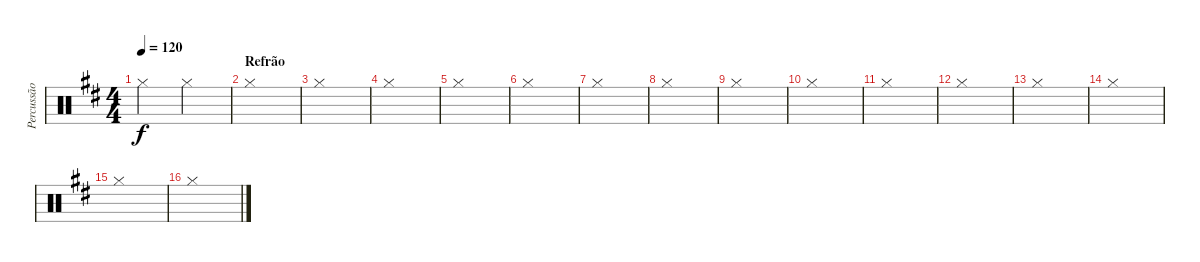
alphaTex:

\track ("Percussão" "Percussão") {instrument percussion}
\staff {score}
\articulation defaults
\ts (4 4)
\tempo 120
\clef neutral
\ks d "Hi-Hat (closed)".2{dy f} "Hi-Hat (closed)".2
|
\section ("" "Refrão")
"Hi-Hat (closed)".1 |
"Hi-Hat (closed)".1 |
"Hi-Hat (closed)".1 |
"Hi-Hat (closed)".1 |
"Hi-Hat (closed)".1 |
"Hi-Hat (closed)".1 |
"Hi-Hat (closed)".1 |
"Hi-Hat (closed)".1 |
"Hi-Hat (closed)".1 |
"Hi-Hat (closed)".1 |
"Hi-Hat (closed)".1 |
"Hi-Hat (closed)".1 |
"Hi-Hat (closed)".1 |
"Hi-Hat (closed)".1 |
"Hi-Hat (closed)".1
